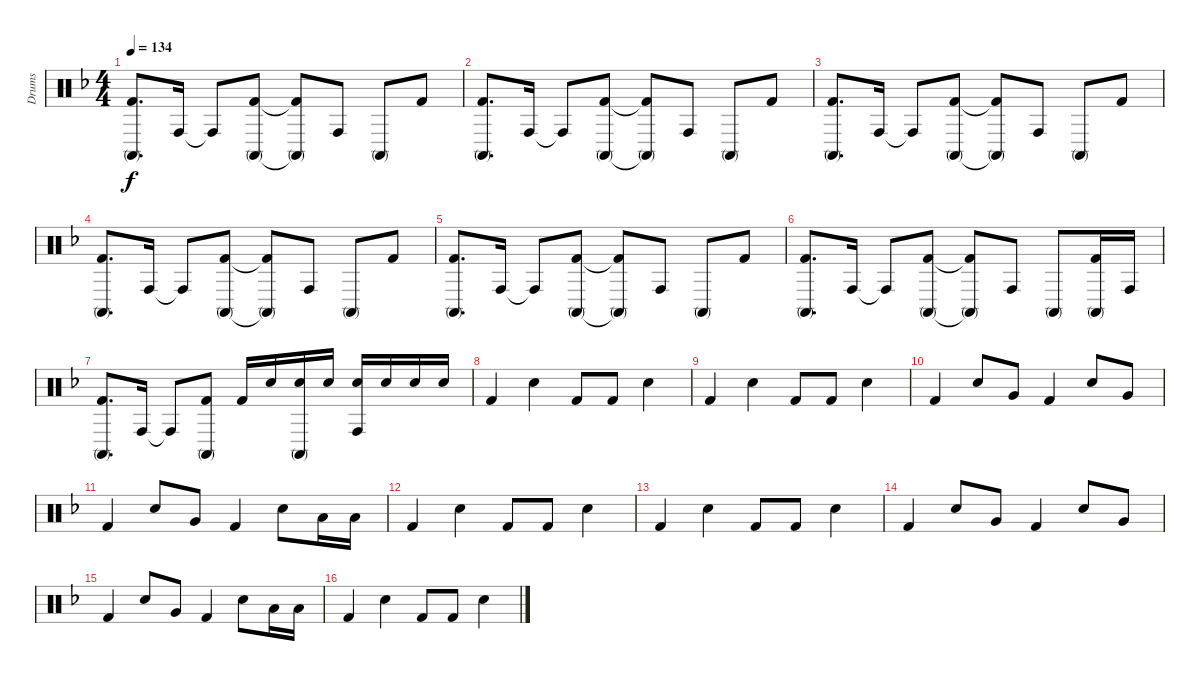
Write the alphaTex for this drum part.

\track ("Drums" "Drums") {instrument percussion}
\staff {score}
\articulation defaults
\ts (4 4)
\tempo 134
\clef neutral
\ks f
("Kick (hit) 2" "Conga high (mute)").8{d dy f} "Conga high (hit)".16 "Conga high (hit)"{t}.8 ("Kick (hit) 2" "Conga high (mute)").8 ("Kick (hit) 2"{t} "Conga high (mute)"{t}).8 "Conga high (hit)".8 "Conga high (mute)".8 "Kick (hit) 2".8 |
("Kick (hit) 2" "Conga high (mute)").8{d} "Conga high (hit)".16 "Conga high (hit)"{t}.8 ("Kick (hit) 2" "Conga high (mute)").8 ("Kick (hit) 2"{t} "Conga high (mute)"{t}).8 "Conga high (hit)".8 "Conga high (mute)".8 "Kick (hit) 2".8 |
("Kick (hit) 2" "Conga high (mute)").8{d} "Conga high (hit)".16 "Conga high (hit)"{t}.8 ("Kick (hit) 2" "Conga high (mute)").8 ("Kick (hit) 2"{t} "Conga high (mute)"{t}).8 "Conga high (hit)".8 "Conga high (mute)".8 "Kick (hit) 2".8 |
("Kick (hit) 2" "Conga high (mute)").8{d} "Conga high (hit)".16 "Conga high (hit)"{t}.8 ("Kick (hit) 2" "Conga high (mute)").8 ("Kick (hit) 2"{t} "Conga high (mute)"{t}).8 "Conga high (hit)".8 "Conga high (mute)".8 "Kick (hit) 2".8 |
("Kick (hit) 2" "Conga high (mute)").8{d} "Conga high (hit)".16 "Conga high (hit)"{t}.8 ("Kick (hit) 2" "Conga high (mute)").8 ("Kick (hit) 2"{t} "Conga high (mute)"{t}).8 "Conga high (hit)".8 "Conga high (mute)".8 "Kick (hit) 2".8 |
("Kick (hit) 2" "Conga high (mute)").8{d} "Conga high (hit)".16 "Conga high (hit)"{t}.8 ("Kick (hit) 2" "Conga high (mute)").8 ("Kick (hit) 2"{t} "Conga high (mute)"{t}).8 "Conga high (hit)".8 "Conga high (mute)".8 ("Kick (hit) 2" "Conga high (mute)").16 "Conga high (hit)".16 |
("Kick (hit) 2" "Conga high (mute)").8{d} "Conga high (hit)".16 "Conga high (hit)"{t}.8 ("Kick (hit) 2" "Conga high (mute)").8 "Kick (hit) 2".16 "Snare (hit) 2".16 ("Snare (hit) 2" "Conga high (mute)").16 "Snare (hit) 2".16 ("Snare (hit) 2" "Conga high (hit)").16 "Snare (hit) 2".16 "Snare (hit) 2".16 "Snare (hit) 2".16 |
"Kick (hit) 2".4 "Snare (hit) 2".4 "Kick (hit) 2".8 "Kick (hit) 2".8 "Snare (hit) 2".4 |
"Kick (hit) 2".4 "Snare (hit) 2".4 "Kick (hit) 2".8 "Kick (hit) 2".8 "Snare (hit) 2".4 |
"Kick (hit) 2".4 "Snare (hit) 2".8 "Very Low Tom (hit)".8 "Kick (hit) 2".4 "Snare (hit) 2".8 "Very Low Tom (hit)".8 |
"Kick (hit) 2".4 "Snare (hit) 2".8 "Very Low Tom (hit)".8 "Kick (hit) 2".4 "Snare (hit) 2".8 "Low Floor Tom (hit)".16 "Low Floor Tom (hit)".16 |
"Kick (hit) 2".4 "Snare (hit) 2".4 "Kick (hit) 2".8 "Kick (hit) 2".8 "Snare (hit) 2".4 |
"Kick (hit) 2".4 "Snare (hit) 2".4 "Kick (hit) 2".8 "Kick (hit) 2".8 "Snare (hit) 2".4 |
"Kick (hit) 2".4 "Snare (hit) 2".8 "Very Low Tom (hit)".8 "Kick (hit) 2".4 "Snare (hit) 2".8 "Very Low Tom (hit)".8 |
"Kick (hit) 2".4 "Snare (hit) 2".8 "Very Low Tom (hit)".8 "Kick (hit) 2".4 "Snare (hit) 2".8 "Low Floor Tom (hit)".16 "Low Floor Tom (hit)".16 |
"Kick (hit) 2".4 "Snare (hit) 2".4 "Kick (hit) 2".8 "Kick (hit) 2".8 "Snare (hit) 2".4
